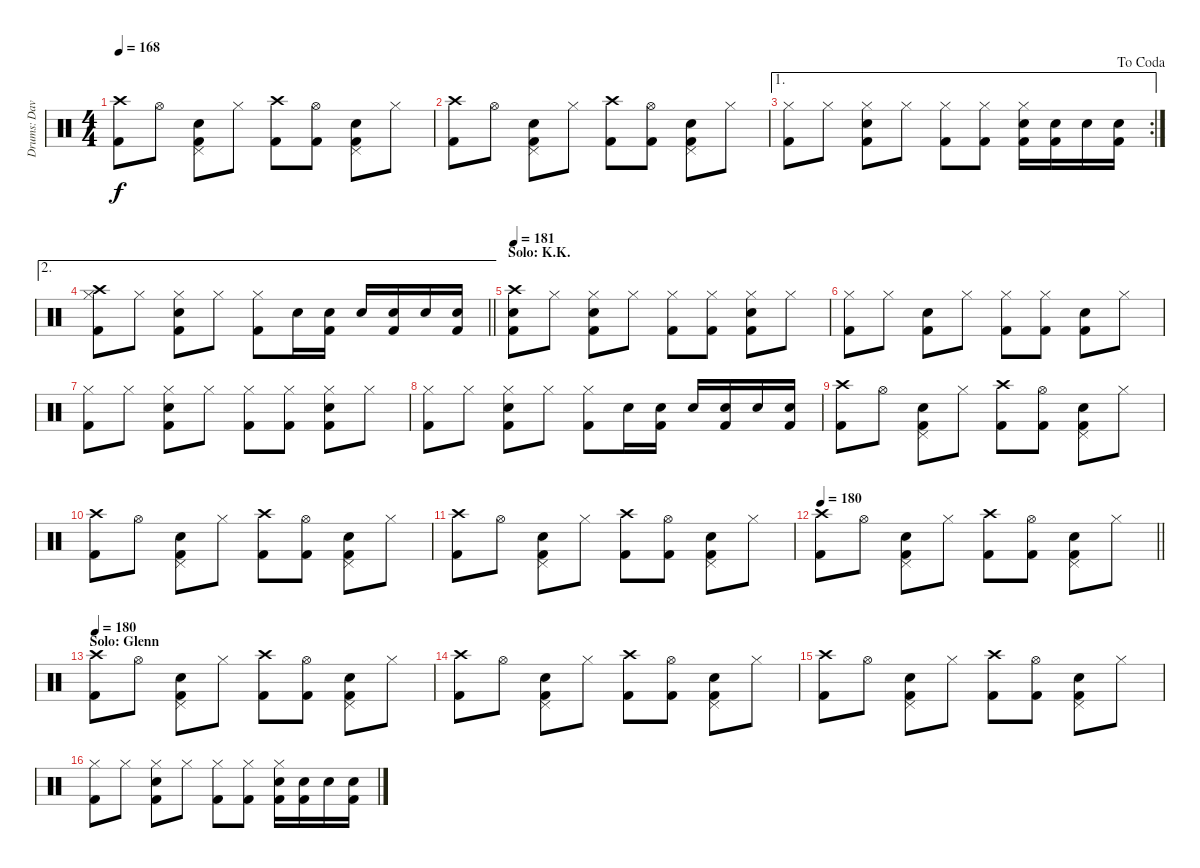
\track ("Drums: Dave" "Drums: Dav") {instrument percussion}
\staff {score}
\articulation defaults
\ts (4 4)
\tempo 168
\clef neutral
\ks c
("Crash high (hit)" "Kick (hit) 2").8{dy f} "Hi-Hat (open)".8 ("Pedal Hi-Hat (hit)" "Snare (hit) 2" "Kick (hit) 2").8 "Hi-Hat (closed)".8 ("Crash high (hit)" "Kick (hit) 2").8 ("Hi-Hat (open)" "Kick (hit) 2").8 ("Pedal Hi-Hat (hit)" "Snare (hit) 2" "Kick (hit) 2").8 "Hi-Hat (closed)".8 |
("Crash high (hit)" "Kick (hit) 2").8 "Hi-Hat (open)".8 ("Pedal Hi-Hat (hit)" "Snare (hit) 2" "Kick (hit) 2").8 "Hi-Hat (closed)".8 ("Crash high (hit)" "Kick (hit) 2").8 ("Hi-Hat (open)" "Kick (hit) 2").8 ("Pedal Hi-Hat (hit)" "Snare (hit) 2" "Kick (hit) 2").8 "Hi-Hat (closed)".8 |
\ae 1
\rc 2
\jump dacoda
("Hi-Hat (closed)" "Kick (hit) 2").8 "Hi-Hat (closed)".8 ("Hi-Hat (closed)" "Snare (hit) 2" "Kick (hit) 2").8 "Hi-Hat (closed)".8 ("Hi-Hat (closed)" "Kick (hit) 2").8 ("Hi-Hat (closed)" "Kick (hit) 2").8 ("Hi-Hat (closed)" "Snare (hit) 2" "Kick (hit) 2").16 ("Snare (hit) 2" "Kick (hit) 2").16 "Snare (hit) 2".16 ("Snare (hit) 2" "Kick (hit) 2").16 |
\ae 2
\barLineRight lightlight
("Crash high (hit)" "Hi-Hat (closed)" "Kick (hit) 2").8 "Hi-Hat (closed)".8 ("Hi-Hat (closed)" "Snare (hit) 2" "Kick (hit) 2").8 "Hi-Hat (closed)".8 ("Hi-Hat (closed)" "Kick (hit) 2").8 "Snare (hit) 2".16 ("Snare (hit) 2" "Kick (hit) 2").16 "Snare (hit) 2".16 ("Snare (hit) 2" "Kick (hit) 2").16 "Snare (hit) 2".16 ("Snare (hit) 2" "Kick (hit) 2").16 |
\section ("" "Solo: K.K.")
\tempo 181
("Crash high (hit)" "Snare (hit) 2" "Kick (hit) 2").8 "Hi-Hat (closed)".8 ("Hi-Hat (closed)" "Snare (hit) 2" "Kick (hit) 2").8 "Hi-Hat (closed)".8 ("Hi-Hat (closed)" "Kick (hit) 2").8 ("Hi-Hat (closed)" "Kick (hit) 2").8 ("Hi-Hat (closed)" "Snare (hit) 2" "Kick (hit) 2").8 "Hi-Hat (closed)".8 |
("Hi-Hat (closed)" "Kick (hit) 2").8 "Hi-Hat (closed)".8 ("Snare (hit) 2" "Kick (hit) 2").8 "Hi-Hat (closed)".8 ("Hi-Hat (closed)" "Kick (hit) 2").8 ("Hi-Hat (closed)" "Kick (hit) 2").8 ("Snare (hit) 2" "Kick (hit) 2").8 "Hi-Hat (closed)".8 |
("Hi-Hat (closed)" "Kick (hit) 2").8 "Hi-Hat (closed)".8 ("Hi-Hat (closed)" "Snare (hit) 2" "Kick (hit) 2").8 "Hi-Hat (closed)".8 ("Hi-Hat (closed)" "Kick (hit) 2").8 ("Hi-Hat (closed)" "Kick (hit) 2").8 ("Hi-Hat (closed)" "Snare (hit) 2" "Kick (hit) 2").8 "Hi-Hat (closed)".8 |
("Hi-Hat (closed)" "Kick (hit) 2").8 "Hi-Hat (closed)".8 ("Hi-Hat (closed)" "Snare (hit) 2" "Kick (hit) 2").8 "Hi-Hat (closed)".8 ("Hi-Hat (closed)" "Kick (hit) 2").8 "Snare (hit) 2".16 ("Snare (hit) 2" "Kick (hit) 2").16 "Snare (hit) 2".16 ("Snare (hit) 2" "Kick (hit) 2").16 "Snare (hit) 2".16 ("Snare (hit) 2" "Kick (hit) 2").16 |
("Crash high (hit)" "Kick (hit) 2").8 "Hi-Hat (open)".8 ("Pedal Hi-Hat (hit)" "Snare (hit) 2" "Kick (hit) 2").8 "Hi-Hat (closed)".8 ("Crash high (hit)" "Kick (hit) 2").8 ("Hi-Hat (open)" "Kick (hit) 2").8 ("Pedal Hi-Hat (hit)" "Snare (hit) 2" "Kick (hit) 2").8 "Hi-Hat (closed)".8 |
("Crash high (hit)" "Kick (hit) 2").8 "Hi-Hat (open)".8 ("Pedal Hi-Hat (hit)" "Snare (hit) 2" "Kick (hit) 2").8 "Hi-Hat (closed)".8 ("Crash high (hit)" "Kick (hit) 2").8 ("Hi-Hat (open)" "Kick (hit) 2").8 ("Pedal Hi-Hat (hit)" "Snare (hit) 2" "Kick (hit) 2").8 "Hi-Hat (closed)".8 |
("Crash high (hit)" "Kick (hit) 2").8 "Hi-Hat (open)".8 ("Pedal Hi-Hat (hit)" "Snare (hit) 2" "Kick (hit) 2").8 "Hi-Hat (closed)".8 ("Crash high (hit)" "Kick (hit) 2").8 ("Hi-Hat (open)" "Kick (hit) 2").8 ("Pedal Hi-Hat (hit)" "Snare (hit) 2" "Kick (hit) 2").8 "Hi-Hat (closed)".8 |
\tempo 180
\barLineRight lightlight
("Crash high (hit)" "Kick (hit) 2").8 "Hi-Hat (open)".8 ("Pedal Hi-Hat (hit)" "Snare (hit) 2" "Kick (hit) 2").8 "Hi-Hat (closed)".8 ("Crash high (hit)" "Kick (hit) 2").8 ("Hi-Hat (open)" "Kick (hit) 2").8 ("Pedal Hi-Hat (hit)" "Snare (hit) 2" "Kick (hit) 2").8 "Hi-Hat (closed)".8 |
\section ("" "Solo: Glenn")
\tempo 180
("Crash high (hit)" "Kick (hit) 2").8 "Hi-Hat (open)".8 ("Pedal Hi-Hat (hit)" "Snare (hit) 2" "Kick (hit) 2").8 "Hi-Hat (closed)".8 ("Crash high (hit)" "Kick (hit) 2").8 ("Hi-Hat (open)" "Kick (hit) 2").8 ("Pedal Hi-Hat (hit)" "Snare (hit) 2" "Kick (hit) 2").8 "Hi-Hat (closed)".8 |
("Crash high (hit)" "Kick (hit) 2").8 "Hi-Hat (open)".8 ("Pedal Hi-Hat (hit)" "Snare (hit) 2" "Kick (hit) 2").8 "Hi-Hat (closed)".8 ("Crash high (hit)" "Kick (hit) 2").8 ("Hi-Hat (open)" "Kick (hit) 2").8 ("Pedal Hi-Hat (hit)" "Snare (hit) 2" "Kick (hit) 2").8 "Hi-Hat (closed)".8 |
("Crash high (hit)" "Kick (hit) 2").8 "Hi-Hat (open)".8 ("Pedal Hi-Hat (hit)" "Snare (hit) 2" "Kick (hit) 2").8 "Hi-Hat (closed)".8 ("Crash high (hit)" "Kick (hit) 2").8 ("Hi-Hat (open)" "Kick (hit) 2").8 ("Pedal Hi-Hat (hit)" "Snare (hit) 2" "Kick (hit) 2").8 "Hi-Hat (closed)".8 |
("Hi-Hat (closed)" "Kick (hit) 2").8 "Hi-Hat (closed)".8 ("Hi-Hat (closed)" "Snare (hit) 2" "Kick (hit) 2").8 "Hi-Hat (closed)".8 ("Hi-Hat (closed)" "Kick (hit) 2").8 ("Hi-Hat (closed)" "Kick (hit) 2").8 ("Hi-Hat (closed)" "Snare (hit) 2" "Kick (hit) 2").16 ("Snare (hit) 2" "Kick (hit) 2").16 "Snare (hit) 2".16 ("Snare (hit) 2" "Kick (hit) 2").16
